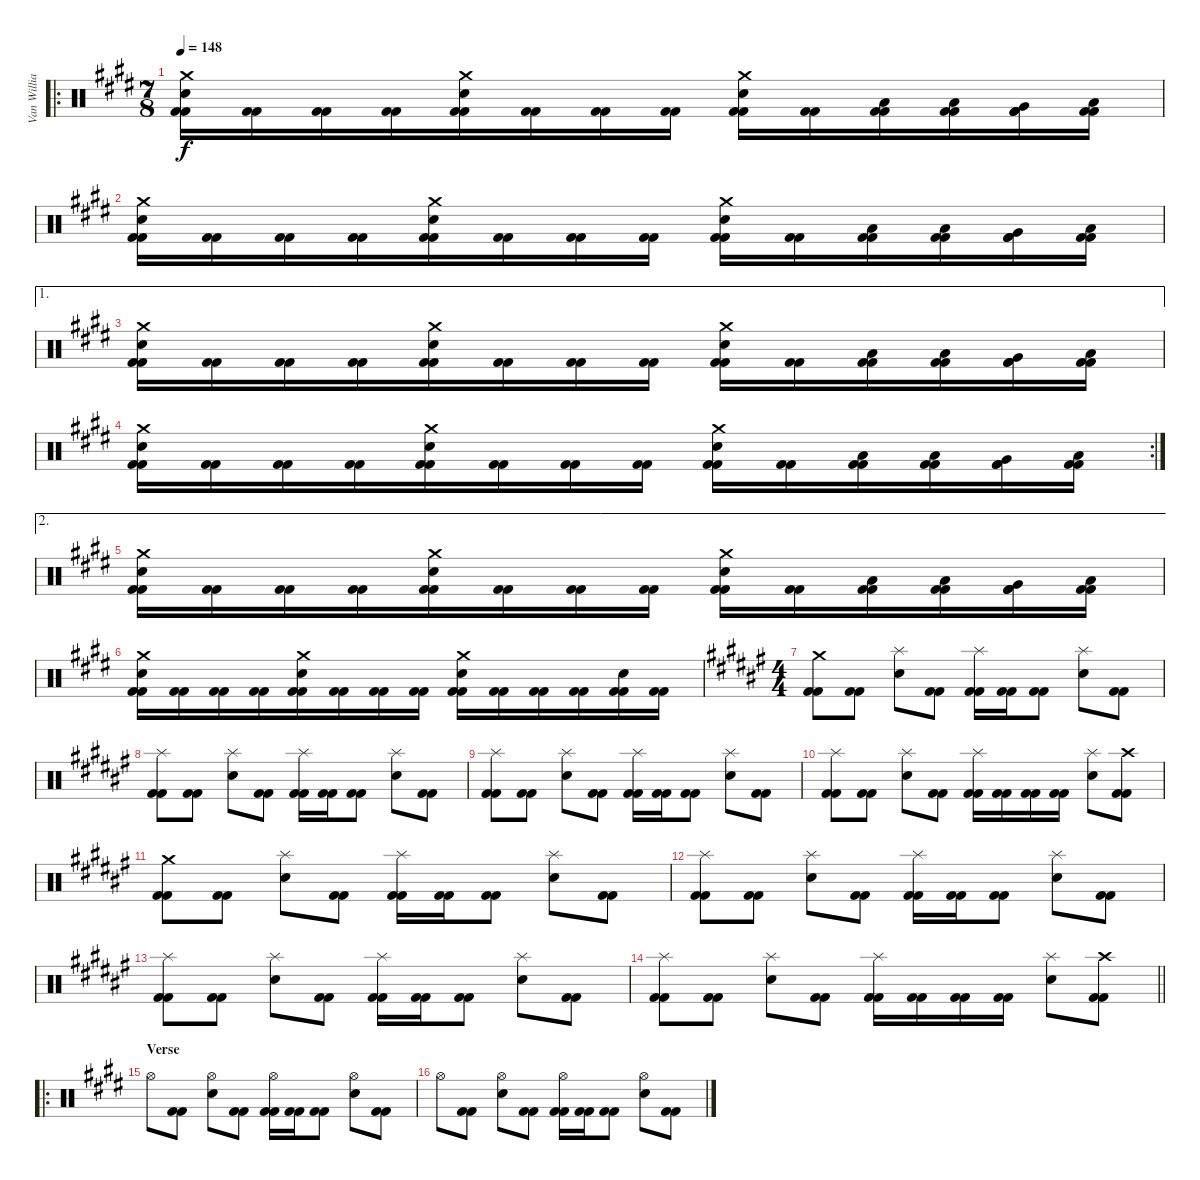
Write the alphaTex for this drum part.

\track ("Van Williams" "Van Willia") {instrument percussion}
\staff {score}
\articulation defaults
\ro
\ts (7 8)
\tempo 148
\clef neutral
\ks e
("Crash medium (hit)" "Electric Snare (hit)" "Kick (hit) 2" "Kick (hit) 2").16{dy f} ("Kick (hit) 2" "Kick (hit) 2").16 ("Kick (hit) 2" "Kick (hit) 2").16 ("Kick (hit) 2" "Kick (hit) 2").16 ("Crash medium (hit)" "Electric Snare (hit)" "Kick (hit) 2" "Kick (hit) 2").16 ("Kick (hit) 2" "Kick (hit) 2").16 ("Kick (hit) 2" "Kick (hit) 2").16 ("Kick (hit) 2" "Kick (hit) 2").16 ("Crash medium (hit)" "Electric Snare (hit)" "Kick (hit) 2" "Kick (hit) 2").16 ("Kick (hit) 2" "Kick (hit) 2").16 ("Low Tom (hit)" "Kick (hit) 2" "Kick (hit) 2").16 ("Low Tom (hit)" "Kick (hit) 2" "Kick (hit) 2").16 ("Very Low Tom (hit)" "Kick (hit) 2" "Kick (hit) 2").16 ("Low Floor Tom (hit)" "Kick (hit) 2" "Kick (hit) 2").16 |
("Crash medium (hit)" "Electric Snare (hit)" "Kick (hit) 2" "Kick (hit) 2").16 ("Kick (hit) 2" "Kick (hit) 2").16 ("Kick (hit) 2" "Kick (hit) 2").16 ("Kick (hit) 2" "Kick (hit) 2").16 ("Crash medium (hit)" "Electric Snare (hit)" "Kick (hit) 2" "Kick (hit) 2").16 ("Kick (hit) 2" "Kick (hit) 2").16 ("Kick (hit) 2" "Kick (hit) 2").16 ("Kick (hit) 2" "Kick (hit) 2").16 ("Crash medium (hit)" "Electric Snare (hit)" "Kick (hit) 2" "Kick (hit) 2").16 ("Kick (hit) 2" "Kick (hit) 2").16 ("Low Tom (hit)" "Kick (hit) 2" "Kick (hit) 2").16 ("Low Tom (hit)" "Kick (hit) 2" "Kick (hit) 2").16 ("Very Low Tom (hit)" "Kick (hit) 2" "Kick (hit) 2").16 ("Low Floor Tom (hit)" "Kick (hit) 2" "Kick (hit) 2").16 |
\ae 1
("Crash medium (hit)" "Electric Snare (hit)" "Kick (hit) 2" "Kick (hit) 2").16 ("Kick (hit) 2" "Kick (hit) 2").16 ("Kick (hit) 2" "Kick (hit) 2").16 ("Kick (hit) 2" "Kick (hit) 2").16 ("Crash medium (hit)" "Electric Snare (hit)" "Kick (hit) 2" "Kick (hit) 2").16 ("Kick (hit) 2" "Kick (hit) 2").16 ("Kick (hit) 2" "Kick (hit) 2").16 ("Kick (hit) 2" "Kick (hit) 2").16 ("Crash medium (hit)" "Electric Snare (hit)" "Kick (hit) 2" "Kick (hit) 2").16 ("Kick (hit) 2" "Kick (hit) 2").16 ("Low Tom (hit)" "Kick (hit) 2" "Kick (hit) 2").16 ("Low Tom (hit)" "Kick (hit) 2" "Kick (hit) 2").16 ("Very Low Tom (hit)" "Kick (hit) 2" "Kick (hit) 2").16 ("Low Floor Tom (hit)" "Kick (hit) 2" "Kick (hit) 2").16 |
\rc 2
("Crash medium (hit)" "Electric Snare (hit)" "Kick (hit) 2" "Kick (hit) 2").16 ("Kick (hit) 2" "Kick (hit) 2").16 ("Kick (hit) 2" "Kick (hit) 2").16 ("Kick (hit) 2" "Kick (hit) 2").16 ("Crash medium (hit)" "Electric Snare (hit)" "Kick (hit) 2" "Kick (hit) 2").16 ("Kick (hit) 2" "Kick (hit) 2").16 ("Kick (hit) 2" "Kick (hit) 2").16 ("Kick (hit) 2" "Kick (hit) 2").16 ("Crash medium (hit)" "Electric Snare (hit)" "Kick (hit) 2" "Kick (hit) 2").16 ("Kick (hit) 2" "Kick (hit) 2").16 ("Low Tom (hit)" "Kick (hit) 2" "Kick (hit) 2").16 ("Low Tom (hit)" "Kick (hit) 2" "Kick (hit) 2").16 ("Very Low Tom (hit)" "Kick (hit) 2" "Kick (hit) 2").16 ("Low Floor Tom (hit)" "Kick (hit) 2" "Kick (hit) 2").16 |
\ae 2
("Crash medium (hit)" "Electric Snare (hit)" "Kick (hit) 2" "Kick (hit) 2").16 ("Kick (hit) 2" "Kick (hit) 2").16 ("Kick (hit) 2" "Kick (hit) 2").16 ("Kick (hit) 2" "Kick (hit) 2").16 ("Crash medium (hit)" "Electric Snare (hit)" "Kick (hit) 2" "Kick (hit) 2").16 ("Kick (hit) 2" "Kick (hit) 2").16 ("Kick (hit) 2" "Kick (hit) 2").16 ("Kick (hit) 2" "Kick (hit) 2").16 ("Crash medium (hit)" "Electric Snare (hit)" "Kick (hit) 2" "Kick (hit) 2").16 ("Kick (hit) 2" "Kick (hit) 2").16 ("Low Tom (hit)" "Kick (hit) 2" "Kick (hit) 2").16 ("Low Tom (hit)" "Kick (hit) 2" "Kick (hit) 2").16 ("Very Low Tom (hit)" "Kick (hit) 2" "Kick (hit) 2").16 ("Low Floor Tom (hit)" "Kick (hit) 2" "Kick (hit) 2").16 |
("Crash medium (hit)" "Electric Snare (hit)" "Kick (hit) 2" "Kick (hit) 2").16 ("Kick (hit) 2" "Kick (hit) 2").16 ("Kick (hit) 2" "Kick (hit) 2").16 ("Kick (hit) 2" "Kick (hit) 2").16 ("Crash medium (hit)" "Electric Snare (hit)" "Kick (hit) 2" "Kick (hit) 2").16 ("Kick (hit) 2" "Kick (hit) 2").16 ("Kick (hit) 2" "Kick (hit) 2").16 ("Kick (hit) 2" "Kick (hit) 2").16 ("Crash medium (hit)" "Electric Snare (hit)" "Kick (hit) 2" "Kick (hit) 2").16 ("Kick (hit) 2" "Kick (hit) 2").16 ("Kick (hit) 2" "Kick (hit) 2").16 ("Kick (hit) 2" "Kick (hit) 2").16 ("Electric Snare (hit)" "Kick (hit) 2" "Kick (hit) 2").16 ("Kick (hit) 2" "Kick (hit) 2").16 |
\ts (4 4)
\ks f#
("Crash medium (hit)" "Kick (hit) 2" "Kick (hit) 2").8 ("Kick (hit) 2" "Kick (hit) 2").8 ("Splash (hit)" "Electric Snare (hit)").8 ("Kick (hit) 2" "Kick (hit) 2").8 ("Splash (hit)" "Kick (hit) 2" "Kick (hit) 2").16 ("Kick (hit) 2" "Kick (hit) 2").16 ("Kick (hit) 2" "Kick (hit) 2").8 ("Splash (hit)" "Electric Snare (hit)").8 ("Kick (hit) 2" "Kick (hit) 2").8 |
("Splash (hit)" "Kick (hit) 2" "Kick (hit) 2").8 ("Kick (hit) 2" "Kick (hit) 2").8 ("Splash (hit)" "Electric Snare (hit)").8 ("Kick (hit) 2" "Kick (hit) 2").8 ("Splash (hit)" "Kick (hit) 2" "Kick (hit) 2").16 ("Kick (hit) 2" "Kick (hit) 2").16 ("Kick (hit) 2" "Kick (hit) 2").8 ("Splash (hit)" "Electric Snare (hit)").8 ("Kick (hit) 2" "Kick (hit) 2").8 |
("Splash (hit)" "Kick (hit) 2" "Kick (hit) 2").8 ("Kick (hit) 2" "Kick (hit) 2").8 ("Splash (hit)" "Electric Snare (hit)").8 ("Kick (hit) 2" "Kick (hit) 2").8 ("Splash (hit)" "Kick (hit) 2" "Kick (hit) 2").16 ("Kick (hit) 2" "Kick (hit) 2").16 ("Kick (hit) 2" "Kick (hit) 2").8 ("Splash (hit)" "Electric Snare (hit)").8 ("Kick (hit) 2" "Kick (hit) 2").8 |
("Splash (hit)" "Kick (hit) 2" "Kick (hit) 2").8 ("Kick (hit) 2" "Kick (hit) 2").8 ("Splash (hit)" "Electric Snare (hit)").8 ("Kick (hit) 2" "Kick (hit) 2").8 ("Splash (hit)" "Kick (hit) 2" "Kick (hit) 2").16 ("Kick (hit) 2" "Kick (hit) 2").16 ("Kick (hit) 2" "Kick (hit) 2").16 ("Kick (hit) 2" "Kick (hit) 2").16 ("Splash (hit)" "Electric Snare (hit)").8 ("Crash high (hit)" "Kick (hit) 2" "Kick (hit) 2").8 |
("Crash medium (hit)" "Kick (hit) 2" "Kick (hit) 2").8 ("Kick (hit) 2" "Kick (hit) 2").8 ("Splash (hit)" "Electric Snare (hit)").8 ("Kick (hit) 2" "Kick (hit) 2").8 ("Splash (hit)" "Kick (hit) 2" "Kick (hit) 2").16 ("Kick (hit) 2" "Kick (hit) 2").16 ("Kick (hit) 2" "Kick (hit) 2").8 ("Splash (hit)" "Electric Snare (hit)").8 ("Kick (hit) 2" "Kick (hit) 2").8 |
("Splash (hit)" "Kick (hit) 2" "Kick (hit) 2").8 ("Kick (hit) 2" "Kick (hit) 2").8 ("Splash (hit)" "Electric Snare (hit)").8 ("Kick (hit) 2" "Kick (hit) 2").8 ("Splash (hit)" "Kick (hit) 2" "Kick (hit) 2").16 ("Kick (hit) 2" "Kick (hit) 2").16 ("Kick (hit) 2" "Kick (hit) 2").8 ("Splash (hit)" "Electric Snare (hit)").8 ("Kick (hit) 2" "Kick (hit) 2").8 |
("Splash (hit)" "Kick (hit) 2" "Kick (hit) 2").8 ("Kick (hit) 2" "Kick (hit) 2").8 ("Splash (hit)" "Electric Snare (hit)").8 ("Kick (hit) 2" "Kick (hit) 2").8 ("Splash (hit)" "Kick (hit) 2" "Kick (hit) 2").16 ("Kick (hit) 2" "Kick (hit) 2").16 ("Kick (hit) 2" "Kick (hit) 2").8 ("Splash (hit)" "Electric Snare (hit)").8 ("Kick (hit) 2" "Kick (hit) 2").8 |
\barLineRight lightlight
("Splash (hit)" "Kick (hit) 2" "Kick (hit) 2").8 ("Kick (hit) 2" "Kick (hit) 2").8 ("Splash (hit)" "Electric Snare (hit)").8 ("Kick (hit) 2" "Kick (hit) 2").8 ("Splash (hit)" "Kick (hit) 2" "Kick (hit) 2").16 ("Kick (hit) 2" "Kick (hit) 2").16 ("Kick (hit) 2" "Kick (hit) 2").16 ("Kick (hit) 2" "Kick (hit) 2").16 ("Splash (hit)" "Electric Snare (hit)").8 ("Crash high (hit)" "Kick (hit) 2" "Kick (hit) 2").8 |
\ro
\section ("" "Verse")
\ks e "Hi-Hat (open)".8
("Kick (hit) 2" "Kick (hit) 2").8 ("Hi-Hat (open)" "Electric Snare (hit)").8 ("Kick (hit) 2" "Kick (hit) 2").8 ("Hi-Hat (open)" "Kick (hit) 2" "Kick (hit) 2").16 ("Kick (hit) 2" "Kick (hit) 2").16 ("Kick (hit) 2" "Kick (hit) 2").8 ("Hi-Hat (open)" "Electric Snare (hit)").8 ("Kick (hit) 2" "Kick (hit) 2").8 |
"Hi-Hat (open)".8 ("Kick (hit) 2" "Kick (hit) 2").8 ("Hi-Hat (open)" "Electric Snare (hit)").8 ("Kick (hit) 2" "Kick (hit) 2").8 ("Hi-Hat (open)" "Kick (hit) 2" "Kick (hit) 2").16 ("Kick (hit) 2" "Kick (hit) 2").16 ("Kick (hit) 2" "Kick (hit) 2").8 ("Hi-Hat (open)" "Electric Snare (hit)").8 ("Kick (hit) 2" "Kick (hit) 2").8
